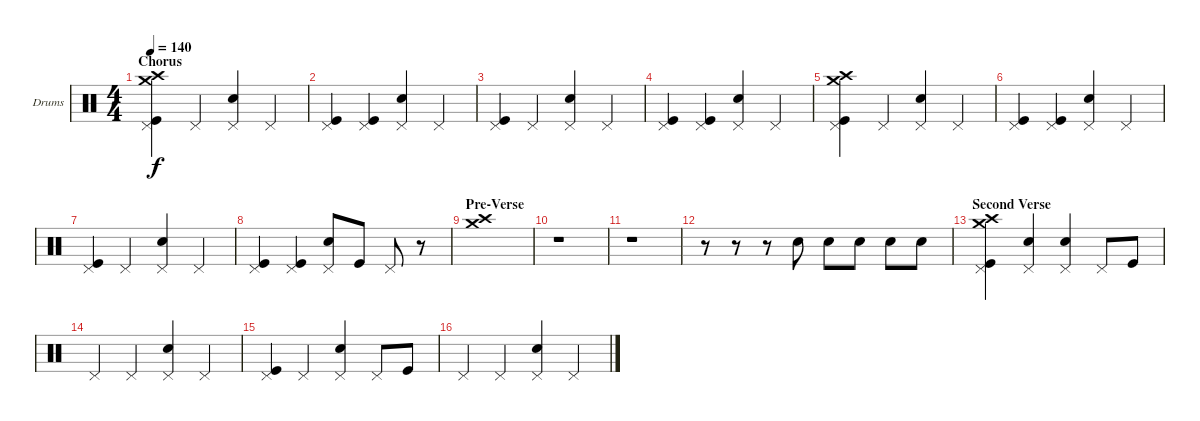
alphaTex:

\bracketExtendMode groupsimilarinstruments
\firstSystemTrackNameOrientation horizontal
\otherSystemsTrackNameOrientation horizontal
\track ("Drumkit" "Drums") {instrument percussion}
\staff {score}
\articulation defaults
\ts (4 4)
\section ("" "Chorus")
\tempo 140
\clef neutral
\ks c
("Crash medium (hit)" "Pedal Hi-Hat (hit)" "Crash high (hit)" "Kick (hit)").4{dy f} "Pedal Hi-Hat (hit)".4 ("Pedal Hi-Hat (hit)" "Snare (hit) 2").4 "Pedal Hi-Hat (hit)".4 |
("Pedal Hi-Hat (hit)" "Kick (hit)").4 ("Pedal Hi-Hat (hit)" "Kick (hit)").4 ("Pedal Hi-Hat (hit)" "Snare (hit) 2").4 "Pedal Hi-Hat (hit)".4 |
("Pedal Hi-Hat (hit)" "Kick (hit)").4 "Pedal Hi-Hat (hit)".4 ("Pedal Hi-Hat (hit)" "Snare (hit) 2").4 "Pedal Hi-Hat (hit)".4 |
("Pedal Hi-Hat (hit)" "Kick (hit)").4 ("Pedal Hi-Hat (hit)" "Kick (hit)").4 ("Pedal Hi-Hat (hit)" "Snare (hit) 2").4 "Pedal Hi-Hat (hit)".4 |
("Crash medium (hit)" "Pedal Hi-Hat (hit)" "Crash high (hit)" "Kick (hit)").4 "Pedal Hi-Hat (hit)".4 ("Pedal Hi-Hat (hit)" "Snare (hit) 2").4 "Pedal Hi-Hat (hit)".4 |
("Pedal Hi-Hat (hit)" "Kick (hit)").4 ("Pedal Hi-Hat (hit)" "Kick (hit)").4 ("Pedal Hi-Hat (hit)" "Snare (hit) 2").4 "Pedal Hi-Hat (hit)".4 |
("Pedal Hi-Hat (hit)" "Kick (hit)").4 "Pedal Hi-Hat (hit)".4 ("Pedal Hi-Hat (hit)" "Snare (hit) 2").4 "Pedal Hi-Hat (hit)".4 |
("Pedal Hi-Hat (hit)" "Kick (hit)").4 ("Pedal Hi-Hat (hit)" "Kick (hit)").4 ("Pedal Hi-Hat (hit)" "Snare (hit) 2").8 "Kick (hit)".8 "Pedal Hi-Hat (hit)".8 r.8 |
\section ("" "Pre-Verse")
("Crash high (hit)" "Crash medium (hit)").1 |
r.1 |
r.1 |
r.8 r.8 r.8 "Snare (hit) 2".8 "Snare (hit) 2".8 "Snare (hit) 2".8 "Snare (hit) 2".8 "Snare (hit) 2".8 |
\section ("" "Second Verse")
("Crash high (hit)" "Pedal Hi-Hat (hit)" "Crash medium (hit)" "Kick (hit)").4 ("Pedal Hi-Hat (hit)" "Snare (hit) 2").4 ("Pedal Hi-Hat (hit)" "Snare (hit) 2").4 "Pedal Hi-Hat (hit)".8 "Kick (hit)".8 |
"Pedal Hi-Hat (hit)".4 "Pedal Hi-Hat (hit)".4 ("Pedal Hi-Hat (hit)" "Snare (hit) 2").4 "Pedal Hi-Hat (hit)".4 |
("Pedal Hi-Hat (hit)" "Kick (hit)").4 "Pedal Hi-Hat (hit)".4 ("Pedal Hi-Hat (hit)" "Snare (hit) 2").4 "Pedal Hi-Hat (hit)".8 "Kick (hit)".8 |
"Pedal Hi-Hat (hit)".4 "Pedal Hi-Hat (hit)".4 ("Pedal Hi-Hat (hit)" "Snare (hit) 2").4 "Pedal Hi-Hat (hit)".4
